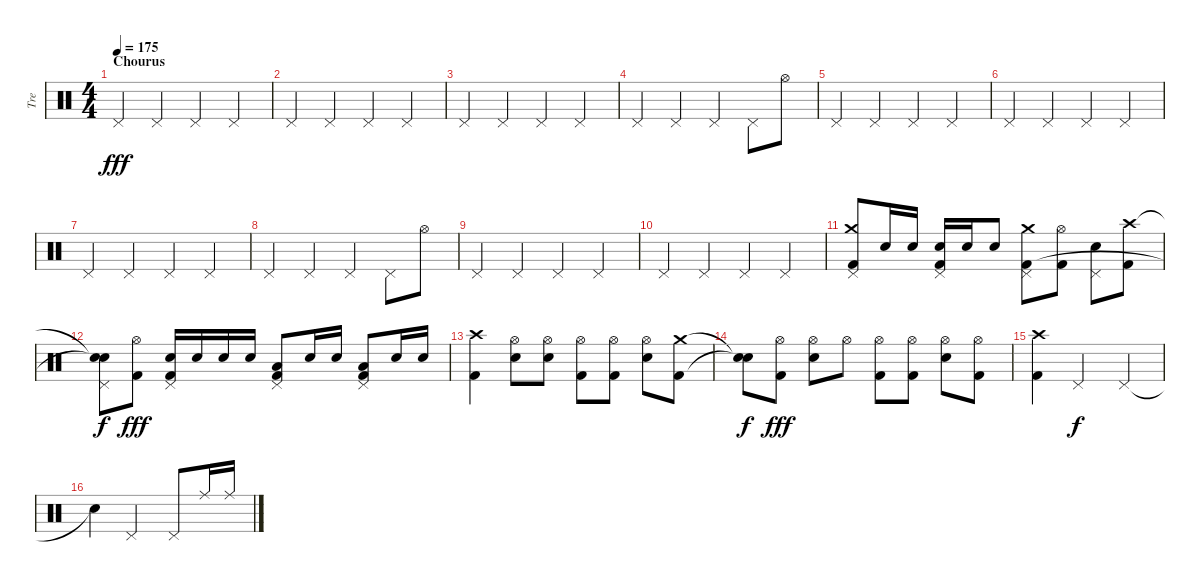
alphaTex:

\track ("Tre" "Tre") {instrument percussion}
\staff {score}
\articulation defaults
\ts (4 4)
\section ("" "Chourus")
\tempo 175
\clef neutral
\ks c "Pedal Hi-Hat (hit)".4{dy fff} "Pedal Hi-Hat (hit)".4 "Pedal Hi-Hat (hit)".4 "Pedal Hi-Hat (hit)".4
|
"Pedal Hi-Hat (hit)".4 "Pedal Hi-Hat (hit)".4 "Pedal Hi-Hat (hit)".4 "Pedal Hi-Hat (hit)".4 |
"Pedal Hi-Hat (hit)".4 "Pedal Hi-Hat (hit)".4 "Pedal Hi-Hat (hit)".4 "Pedal Hi-Hat (hit)".4 |
"Pedal Hi-Hat (hit)".4 "Pedal Hi-Hat (hit)".4 "Pedal Hi-Hat (hit)".4 "Pedal Hi-Hat (hit)".8 "Hi-Hat (open)".8 |
"Pedal Hi-Hat (hit)".4 "Pedal Hi-Hat (hit)".4 "Pedal Hi-Hat (hit)".4 "Pedal Hi-Hat (hit)".4 |
"Pedal Hi-Hat (hit)".4 "Pedal Hi-Hat (hit)".4 "Pedal Hi-Hat (hit)".4 "Pedal Hi-Hat (hit)".4 |
"Pedal Hi-Hat (hit)".4 "Pedal Hi-Hat (hit)".4 "Pedal Hi-Hat (hit)".4 "Pedal Hi-Hat (hit)".4 |
"Pedal Hi-Hat (hit)".4 "Pedal Hi-Hat (hit)".4 "Pedal Hi-Hat (hit)".4 "Pedal Hi-Hat (hit)".8 "Hi-Hat (open)".8 |
"Pedal Hi-Hat (hit)".4 "Pedal Hi-Hat (hit)".4 "Pedal Hi-Hat (hit)".4 "Pedal Hi-Hat (hit)".4 |
"Pedal Hi-Hat (hit)".4 "Pedal Hi-Hat (hit)".4 "Pedal Hi-Hat (hit)".4 "Pedal Hi-Hat (hit)".4 |
("Crash medium (hit)" "Pedal Hi-Hat (hit)" "Kick (hit) 2").8 "Snare (hit) 2".16 "Snare (hit) 2".16 ("Snare (hit) 2" "Pedal Hi-Hat (hit)" "Kick (hit) 2").16 "Snare (hit) 2".16 "Snare (hit) 2".8 ("Crash medium (hit)" "Pedal Hi-Hat (hit)" "Kick (hit) 2").8 ("Hi-Hat (open)" "Kick (hit) 2").8 ("Snare (hit) 2" "Pedal Hi-Hat (hit)").8 ("Crash high (hit)" "Kick (hit) 2").8 |
("Snare (hit)"{t} "Pedal Hi-Hat (hit)" "Snare (hit)"{t}).8{dy f} ("Hi-Hat (open)" "Kick (hit) 2").8{dy fff} ("Snare (hit) 2" "Pedal Hi-Hat (hit)" "Kick (hit) 2").16 "Snare (hit) 2".16 "Snare (hit) 2".16 "Snare (hit) 2".16 ("Low Tom (hit)" "Pedal Hi-Hat (hit)" "Kick (hit) 2").8 "Snare (hit) 2".16 "Snare (hit) 2".16 ("Low Floor Tom (hit)" "Pedal Hi-Hat (hit)" "Kick (hit) 2").8 "Snare (hit) 2".16 "Snare (hit) 2".16 |
("Crash high (hit)" "Kick (hit) 2").4 ("Hi-Hat (open)" "Snare (hit) 2").8 ("Hi-Hat (open)" "Snare (hit) 2").8 ("Hi-Hat (open)" "Kick (hit) 2").8 ("Hi-Hat (open)" "Kick (hit) 2").8 ("Hi-Hat (open)" "Snare (hit) 2").8 ("Crash medium (hit)" "Kick (hit) 2").8 |
("Snare (hit)"{t} "Snare (hit)"{t}).8{dy f} ("Hi-Hat (open)" "Kick (hit) 2").8{dy fff} ("Hi-Hat (open)" "Snare (hit) 2").8 "Hi-Hat (open)".8 ("Hi-Hat (open)" "Kick (hit) 2").8 ("Hi-Hat (open)" "Kick (hit) 2").8 ("Hi-Hat (open)" "Snare (hit) 2").8 ("Hi-Hat (open)" "Kick (hit) 2").8 |
("Crash high (hit)" "Kick (hit) 2").4 "Pedal Hi-Hat (hit)".2{dy f} "Pedal Hi-Hat (hit)".4 |
"Snare (hit)"{t}.4 "Pedal Hi-Hat (hit)".2 "Pedal Hi-Hat (hit)".8 "Ride (middle)".16 "Ride (middle)".16
